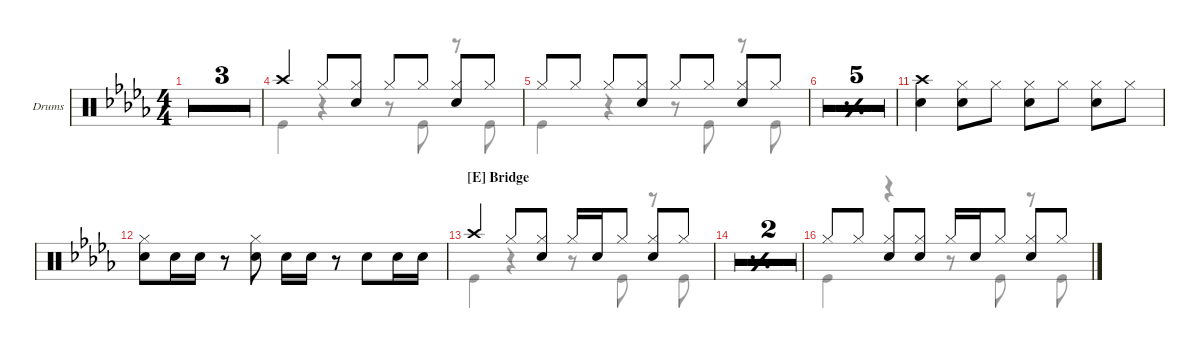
\hideDynamics
\bracketExtendMode nobrackets
\firstSystemTrackNameOrientation horizontal
\otherSystemsTrackNameOrientation horizontal
\track ("Drums" "Drums") {multiBarRest instrument percussion}
\staff {score}
\articulation defaults
\voice
\ts (4 4)
\tempo 116
\clef neutral
\simile firstofdouble
\ks db
|
\simile secondofdouble
|
\simile simple
|
\simile none "Crash high (hit)".4 "Hi-Hat (closed)".8
("Hi-Hat (closed)" "Snare (hit) 2").8 "Hi-Hat (closed)".8 "Hi-Hat (closed)".8 ("Hi-Hat (closed)" "Snare (hit) 2").8 "Hi-Hat (closed)".8 |
"Hi-Hat (closed)".8 "Hi-Hat (closed)".8 "Hi-Hat (closed)".8 ("Hi-Hat (closed)" "Snare (hit) 2").8 "Hi-Hat (closed)".8 "Hi-Hat (closed)".8 ("Hi-Hat (closed)" "Snare (hit) 2").8 "Hi-Hat (closed)".8 |
\simile simple
|
\simile firstofdouble
|
\simile secondofdouble
|
\simile firstofdouble
|
\simile secondofdouble
|
\simile none
("Crash high (hit)" "Snare (hit) 2").4 ("Hi-Hat (closed)" "Snare (hit) 2").8 "Hi-Hat (closed)".8 ("Hi-Hat (closed)" "Snare (hit) 2").8 "Hi-Hat (closed)".8 ("Hi-Hat (closed)" "Snare (hit) 2").8 "Hi-Hat (closed)".8 |
("Snare (hit) 2" "Hi-Hat (closed)").8 "Snare (hit) 2".16 "Snare (hit) 2".16 r.8 ("Snare (hit) 2" "Hi-Hat (closed)").8 "Snare (hit) 2".16 "Snare (hit) 2".16 r.8 "Snare (hit) 2".8 "Snare (hit) 2".16 "Snare (hit) 2".16 |
\section ("E" "Bridge")
"Crash high (hit)".4 "Hi-Hat (closed)".8 ("Hi-Hat (closed)" "Snare (hit) 2").8 "Hi-Hat (closed)".16 "Snare (hit) 2".16 "Hi-Hat (closed)".8 ("Hi-Hat (closed)" "Snare (hit) 2").8 "Hi-Hat (closed)".8 |
\simile simple
|
|
\simile none "Hi-Hat (closed)".8 "Hi-Hat (closed)".8
("Hi-Hat (closed)" "Snare (hit) 2").8 ("Hi-Hat (closed)" "Snare (hit) 2").8 "Hi-Hat (closed)".16 "Snare (hit) 2".16 "Hi-Hat (closed)".8 ("Hi-Hat (closed)" "Snare (hit) 2").8 "Hi-Hat (closed)".8
\voice
\clef neutral
\ottava regular
\simile firstofdouble
\ks db
|
\simile secondofdouble
|
\simile simple
|
\simile none "Kick (hit)".4
r.4 r.8 "Kick (hit)".8 r.8 "Kick (hit)".8 |
"Kick (hit)".4 r.4 r.8 "Kick (hit)".8 r.8 "Kick (hit)".8 |
\simile simple
|
\simile firstofdouble
|
\simile secondofdouble
|
\simile firstofdouble
|
\simile secondofdouble
|
\simile none
|
|
"Kick (hit)".4 r.4 r.8 "Kick (hit)".8 r.8 "Kick (hit)".8 |
\simile simple
|
|
\simile none "Kick (hit)".4
r.4 r.8 "Kick (hit)".8 r.8 "Kick (hit)".8
